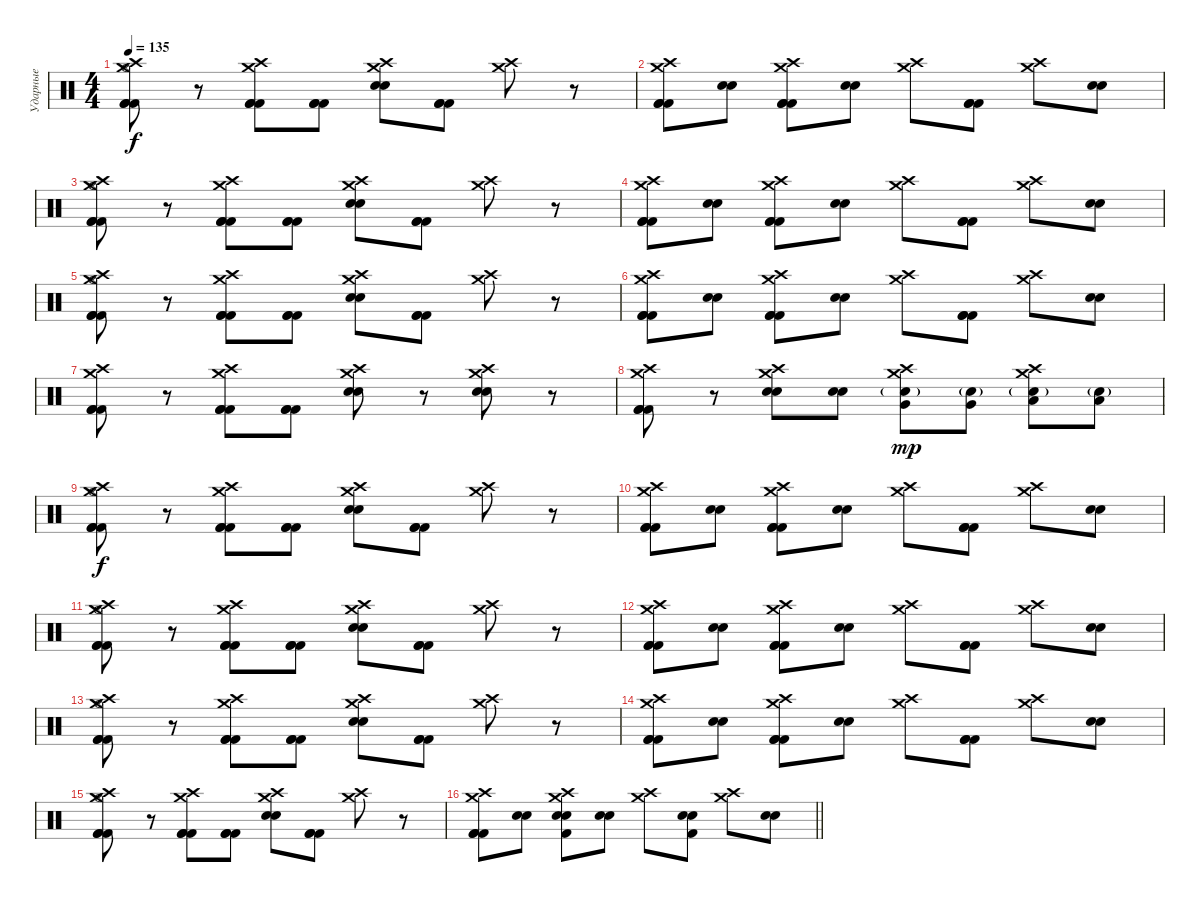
\track ("Ударные" "Ударные") {instrument percussion}
\staff {score}
\articulation defaults
\ts (4 4)
\tempo 135
\clef neutral
\ks c
("Crash high (hit)" "Crash medium (hit)" "Hi-Hat (open)" "Kick (hit) 2" "Kick (hit) 2" "Kick (hit) 2").8{dy f} r.8 ("Crash high (hit)" "Crash medium (hit)" "Kick (hit) 2" "Kick (hit) 2" "Kick (hit) 2").8 ("Kick (hit) 2" "Kick (hit) 2" "Kick (hit) 2").8 ("Crash high (hit)" "Crash medium (hit)" "Electric Snare (hit)" "Electric Snare (hit)").8 ("Kick (hit) 2" "Kick (hit) 2" "Kick (hit) 2").8 ("Crash high (hit)" "Crash medium (hit)").8 r.8 |
("Crash high (hit)" "Crash medium (hit)" "Kick (hit) 2" "Kick (hit) 2" "Kick (hit) 2").8 ("Electric Snare (hit)" "Electric Snare (hit)").8 ("Crash high (hit)" "Crash medium (hit)" "Kick (hit) 2" "Kick (hit) 2" "Kick (hit) 2").8 ("Electric Snare (hit)" "Electric Snare (hit)").8 ("Crash high (hit)" "Crash medium (hit)").8 ("Kick (hit) 2" "Kick (hit) 2" "Kick (hit) 2").8 ("Crash high (hit)" "Crash medium (hit)").8 ("Electric Snare (hit)" "Electric Snare (hit)").8 |
("Crash high (hit)" "Crash medium (hit)" "Hi-Hat (open)" "Kick (hit) 2" "Kick (hit) 2" "Kick (hit) 2").8 r.8 ("Crash high (hit)" "Crash medium (hit)" "Kick (hit) 2" "Kick (hit) 2" "Kick (hit) 2").8 ("Kick (hit) 2" "Kick (hit) 2" "Kick (hit) 2").8 ("Crash high (hit)" "Crash medium (hit)" "Electric Snare (hit)" "Electric Snare (hit)").8 ("Kick (hit) 2" "Kick (hit) 2" "Kick (hit) 2").8 ("Crash high (hit)" "Crash medium (hit)").8 r.8 |
("Crash high (hit)" "Crash medium (hit)" "Kick (hit) 2" "Kick (hit) 2" "Kick (hit) 2").8 ("Electric Snare (hit)" "Electric Snare (hit)").8 ("Crash high (hit)" "Crash medium (hit)" "Kick (hit) 2" "Kick (hit) 2" "Kick (hit) 2").8 ("Electric Snare (hit)" "Electric Snare (hit)").8 ("Crash high (hit)" "Crash medium (hit)").8 ("Kick (hit) 2" "Kick (hit) 2" "Kick (hit) 2").8 ("Crash high (hit)" "Crash medium (hit)").8 ("Electric Snare (hit)" "Electric Snare (hit)").8 |
("Crash high (hit)" "Crash medium (hit)" "Hi-Hat (open)" "Kick (hit) 2" "Kick (hit) 2" "Kick (hit) 2").8 r.8 ("Crash high (hit)" "Crash medium (hit)" "Kick (hit) 2" "Kick (hit) 2" "Kick (hit) 2").8 ("Kick (hit) 2" "Kick (hit) 2" "Kick (hit) 2").8 ("Crash high (hit)" "Crash medium (hit)" "Electric Snare (hit)" "Electric Snare (hit)").8 ("Kick (hit) 2" "Kick (hit) 2" "Kick (hit) 2").8 ("Crash high (hit)" "Crash medium (hit)").8 r.8 |
("Crash high (hit)" "Crash medium (hit)" "Kick (hit) 2" "Kick (hit) 2" "Kick (hit) 2").8 ("Electric Snare (hit)" "Electric Snare (hit)").8 ("Crash high (hit)" "Crash medium (hit)" "Kick (hit) 2" "Kick (hit) 2" "Kick (hit) 2").8 ("Electric Snare (hit)" "Electric Snare (hit)").8 ("Crash high (hit)" "Crash medium (hit)").8 ("Kick (hit) 2" "Kick (hit) 2" "Kick (hit) 2").8 ("Crash high (hit)" "Crash medium (hit)").8 ("Electric Snare (hit)" "Electric Snare (hit)").8 |
("Crash high (hit)" "Crash medium (hit)" "Kick (hit) 2" "Kick (hit) 2" "Kick (hit) 2").8 r.8 ("Crash high (hit)" "Crash medium (hit)" "Kick (hit) 2" "Kick (hit) 2" "Kick (hit) 2").8 ("Kick (hit) 2" "Kick (hit) 2" "Kick (hit) 2").8 ("Crash medium (hit)" "Crash high (hit)" "Electric Snare (hit)" "Electric Snare (hit)").8 r.8 ("Crash medium (hit)" "Crash high (hit)" "Electric Snare (hit)" "Electric Snare (hit)").8 r.8 |
("Crash medium (hit)" "Crash high (hit)" "Kick (hit) 2" "Kick (hit) 2" "Kick (hit) 2").8 r.8 ("Crash medium (hit)" "Crash high (hit)" "Electric Snare (hit)" "Electric Snare (hit)").8 ("Electric Snare (hit)" "Electric Snare (hit)").8 ("Crash medium (hit)" "Crash high (hit)" "Very Low Tom (hit)" "Electric Snare (hit)"{g}).8{dy mp} ("Very Low Tom (hit)" "Electric Snare (hit)"{g}).8 ("Crash medium (hit)" "Crash high (hit)" "Low Floor Tom (hit)" "Electric Snare (hit)"{g}).8 ("Low Floor Tom (hit)" "Electric Snare (hit)"{g}).8 |
("Crash high (hit)" "Crash medium (hit)" "Hi-Hat (open)" "Kick (hit) 2" "Kick (hit) 2" "Kick (hit) 2").8{dy f} r.8 ("Crash high (hit)" "Crash medium (hit)" "Kick (hit) 2" "Kick (hit) 2" "Kick (hit) 2").8 ("Kick (hit) 2" "Kick (hit) 2" "Kick (hit) 2").8 ("Crash high (hit)" "Crash medium (hit)" "Electric Snare (hit)" "Electric Snare (hit)").8 ("Kick (hit) 2" "Kick (hit) 2" "Kick (hit) 2").8 ("Crash high (hit)" "Crash medium (hit)").8 r.8 |
("Crash high (hit)" "Crash medium (hit)" "Kick (hit) 2" "Kick (hit) 2" "Kick (hit) 2").8 ("Electric Snare (hit)" "Electric Snare (hit)").8 ("Crash high (hit)" "Crash medium (hit)" "Kick (hit) 2" "Kick (hit) 2" "Kick (hit) 2").8 ("Electric Snare (hit)" "Electric Snare (hit)").8 ("Crash high (hit)" "Crash medium (hit)").8 ("Kick (hit) 2" "Kick (hit) 2" "Kick (hit) 2").8 ("Crash high (hit)" "Crash medium (hit)").8 ("Electric Snare (hit)" "Electric Snare (hit)").8 |
("Crash high (hit)" "Crash medium (hit)" "Hi-Hat (open)" "Kick (hit) 2" "Kick (hit) 2" "Kick (hit) 2").8 r.8 ("Crash high (hit)" "Crash medium (hit)" "Kick (hit) 2" "Kick (hit) 2" "Kick (hit) 2").8 ("Kick (hit) 2" "Kick (hit) 2" "Kick (hit) 2").8 ("Crash high (hit)" "Crash medium (hit)" "Electric Snare (hit)" "Electric Snare (hit)").8 ("Kick (hit) 2" "Kick (hit) 2" "Kick (hit) 2").8 ("Crash high (hit)" "Crash medium (hit)").8 r.8 |
("Crash high (hit)" "Crash medium (hit)" "Kick (hit) 2" "Kick (hit) 2" "Kick (hit) 2").8 ("Electric Snare (hit)" "Electric Snare (hit)").8 ("Crash high (hit)" "Crash medium (hit)" "Kick (hit) 2" "Kick (hit) 2" "Kick (hit) 2").8 ("Electric Snare (hit)" "Electric Snare (hit)").8 ("Crash high (hit)" "Crash medium (hit)").8 ("Kick (hit) 2" "Kick (hit) 2" "Kick (hit) 2").8 ("Crash high (hit)" "Crash medium (hit)").8 ("Electric Snare (hit)" "Electric Snare (hit)").8 |
("Crash high (hit)" "Crash medium (hit)" "Hi-Hat (open)" "Kick (hit) 2" "Kick (hit) 2" "Kick (hit) 2").8 r.8 ("Crash high (hit)" "Crash medium (hit)" "Kick (hit) 2" "Kick (hit) 2" "Kick (hit) 2").8 ("Kick (hit) 2" "Kick (hit) 2" "Kick (hit) 2").8 ("Crash high (hit)" "Crash medium (hit)" "Electric Snare (hit)" "Electric Snare (hit)").8 ("Kick (hit) 2" "Kick (hit) 2" "Kick (hit) 2").8 ("Crash high (hit)" "Crash medium (hit)").8 r.8 |
("Crash high (hit)" "Crash medium (hit)" "Kick (hit) 2" "Kick (hit) 2" "Kick (hit) 2").8 ("Electric Snare (hit)" "Electric Snare (hit)").8 ("Crash high (hit)" "Crash medium (hit)" "Kick (hit) 2" "Kick (hit) 2" "Kick (hit) 2").8 ("Electric Snare (hit)" "Electric Snare (hit)").8 ("Crash high (hit)" "Crash medium (hit)").8 ("Kick (hit) 2" "Kick (hit) 2" "Kick (hit) 2").8 ("Crash high (hit)" "Crash medium (hit)").8 ("Electric Snare (hit)" "Electric Snare (hit)").8 |
("Crash high (hit)" "Crash medium (hit)" "Hi-Hat (open)" "Kick (hit) 2" "Kick (hit) 2" "Kick (hit) 2").8 r.8 ("Crash high (hit)" "Crash medium (hit)" "Kick (hit) 2" "Kick (hit) 2" "Kick (hit) 2").8 ("Kick (hit) 2" "Kick (hit) 2" "Kick (hit) 2").8 ("Crash high (hit)" "Crash medium (hit)" "Electric Snare (hit)" "Electric Snare (hit)").8 ("Kick (hit) 2" "Kick (hit) 2" "Kick (hit) 2").8 ("Crash high (hit)" "Crash medium (hit)").8 r.8 |
\barLineRight lightlight
("Crash high (hit)" "Crash medium (hit)" "Kick (hit) 2" "Kick (hit) 2" "Kick (hit) 2").8 ("Electric Snare (hit)" "Electric Snare (hit)").8 ("Crash high (hit)" "Crash medium (hit)" "Electric Snare (hit)" "Electric Snare (hit)" "Kick (hit) 2").8 ("Electric Snare (hit)" "Electric Snare (hit)").8 ("Crash high (hit)" "Crash medium (hit)").8 ("Electric Snare (hit)" "Electric Snare (hit)" "Kick (hit) 2").8 ("Crash high (hit)" "Crash medium (hit)").8 ("Electric Snare (hit)" "Electric Snare (hit)").8
